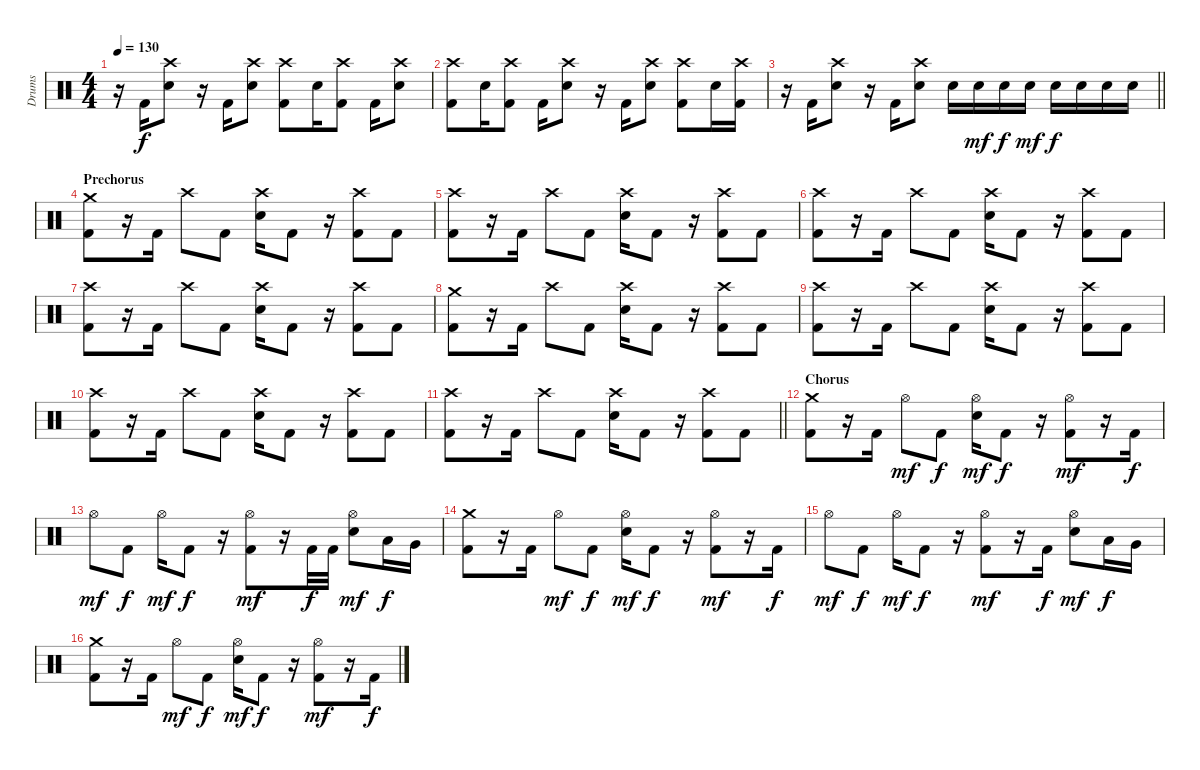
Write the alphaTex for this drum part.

\track ("Drums" "Drums") {instrument percussion}
\staff {score}
\articulation defaults
\ts (4 4)
\tempo 130
\clef neutral
\ks c
r.16{dy f} "Kick (hit) 2".16 ("Crash high (hit)" "Electric Snare (hit)").8 r.16 "Kick (hit) 2".16 ("Crash high (hit)" "Electric Snare (hit)").8 ("Kick (hit) 2" "Crash high (hit)").8 "Electric Snare (hit)".16 ("Kick (hit) 2" "Crash high (hit)").8 "Kick (hit) 2".16 ("Crash high (hit)" "Electric Snare (hit)").8 |
("Kick (hit) 2" "Crash high (hit)").8 "Electric Snare (hit)".16 ("Kick (hit) 2" "Crash high (hit)").8 "Kick (hit) 2".16 ("Crash high (hit)" "Electric Snare (hit)").8 r.16 "Kick (hit) 2".16 ("Crash high (hit)" "Electric Snare (hit)").8 ("Kick (hit) 2" "Crash high (hit)").8 "Electric Snare (hit)".16 ("Kick (hit) 2" "Crash high (hit)").16 |
\barLineRight lightlight
r.16 "Kick (hit) 2".16 ("Crash high (hit)" "Electric Snare (hit)").8 r.16 "Kick (hit) 2".16 ("Crash high (hit)" "Electric Snare (hit)").8 "Electric Snare (hit)".16 "Electric Snare (hit)".16{dy mf} "Electric Snare (hit)".16{dy f} "Electric Snare (hit)".16{dy mf} "Electric Snare (hit)".16{dy f} "Electric Snare (hit)".16 "Electric Snare (hit)".16 "Electric Snare (hit)".16 |
\section ("" "Prechorus")
("Kick (hit) 2" "Crash medium (hit)").8 r.16 "Kick (hit) 2".16 "Crash high (hit)".8 "Kick (hit) 2".8 ("Crash high (hit)" "Electric Snare (hit)").16 "Kick (hit) 2".8 r.16 ("Kick (hit) 2" "Crash high (hit)").8 "Kick (hit) 2".8 |
("Kick (hit) 2" "Crash high (hit)").8 r.16 "Kick (hit) 2".16 "Crash high (hit)".8 "Kick (hit) 2".8 ("Crash high (hit)" "Electric Snare (hit)").16 "Kick (hit) 2".8 r.16 ("Kick (hit) 2" "Crash high (hit)").8 "Kick (hit) 2".8 |
("Kick (hit) 2" "Crash high (hit)").8 r.16 "Kick (hit) 2".16 "Crash high (hit)".8 "Kick (hit) 2".8 ("Crash high (hit)" "Electric Snare (hit)").16 "Kick (hit) 2".8 r.16 ("Kick (hit) 2" "Crash high (hit)").8 "Kick (hit) 2".8 |
("Kick (hit) 2" "Crash high (hit)").8 r.16 "Kick (hit) 2".16 "Crash high (hit)".8 "Kick (hit) 2".8 ("Crash high (hit)" "Electric Snare (hit)").16 "Kick (hit) 2".8 r.16 ("Kick (hit) 2" "Crash high (hit)").8 "Kick (hit) 2".8 |
("Kick (hit) 2" "Crash medium (hit)").8 r.16 "Kick (hit) 2".16 "Crash high (hit)".8 "Kick (hit) 2".8 ("Crash high (hit)" "Electric Snare (hit)").16 "Kick (hit) 2".8 r.16 ("Kick (hit) 2" "Crash high (hit)").8 "Kick (hit) 2".8 |
("Kick (hit) 2" "Crash high (hit)").8 r.16 "Kick (hit) 2".16 "Crash high (hit)".8 "Kick (hit) 2".8 ("Crash high (hit)" "Electric Snare (hit)").16 "Kick (hit) 2".8 r.16 ("Kick (hit) 2" "Crash high (hit)").8 "Kick (hit) 2".8 |
("Kick (hit) 2" "Crash high (hit)").8 r.16 "Kick (hit) 2".16 "Crash high (hit)".8 "Kick (hit) 2".8 ("Crash high (hit)" "Electric Snare (hit)").16 "Kick (hit) 2".8 r.16 ("Kick (hit) 2" "Crash high (hit)").8 "Kick (hit) 2".8 |
\barLineRight lightlight
("Kick (hit) 2" "Crash high (hit)").8 r.16 "Kick (hit) 2".16 "Crash high (hit)".8 "Kick (hit) 2".8 ("Crash high (hit)" "Electric Snare (hit)").16 "Kick (hit) 2".8 r.16 ("Kick (hit) 2" "Crash high (hit)").8 "Kick (hit) 2".8 |
\section ("" "Chorus")
("Kick (hit) 2" "Crash medium (hit)").8 r.16 "Kick (hit) 2".16 "Hi-Hat (open)".8{dy mf} "Kick (hit) 2".8{dy f} ("Hi-Hat (open)" "Electric Snare (hit)").16{dy mf} "Kick (hit) 2".8{dy f} r.16 ("Kick (hit) 2" "Hi-Hat (open)").8{dy mf} r.16 "Kick (hit) 2".16{dy f} |
"Hi-Hat (open)".8{dy mf} "Kick (hit) 2".8{dy f} "Hi-Hat (open)".16{dy mf} "Kick (hit) 2".8{dy f} r.16 ("Kick (hit) 2" "Hi-Hat (open)").8{dy mf} r.16 "Kick (hit) 2".32{dy f} "Kick (hit) 2".32 ("Hi-Hat (open)" "Electric Snare (hit)").8{dy mf} "Low Tom (hit)".16{dy f} "Very Low Tom (hit)".16 |
("Kick (hit) 2" "Crash medium (hit)").8 r.16 "Kick (hit) 2".16 "Hi-Hat (open)".8{dy mf} "Kick (hit) 2".8{dy f} ("Hi-Hat (open)" "Electric Snare (hit)").16{dy mf} "Kick (hit) 2".8{dy f} r.16 ("Kick (hit) 2" "Hi-Hat (open)").8{dy mf} r.16 "Kick (hit) 2".16{dy f} |
"Hi-Hat (open)".8{dy mf} "Kick (hit) 2".8{dy f} "Hi-Hat (open)".16{dy mf} "Kick (hit) 2".8{dy f} r.16 ("Kick (hit) 2" "Hi-Hat (open)").8{dy mf} r.16 "Kick (hit) 2".16{dy f} ("Hi-Hat (open)" "Electric Snare (hit)").8{dy mf} "Low Tom (hit)".16{dy f} "Very Low Tom (hit)".16 |
("Kick (hit) 2" "Crash medium (hit)").8 r.16 "Kick (hit) 2".16 "Hi-Hat (open)".8{dy mf} "Kick (hit) 2".8{dy f} ("Hi-Hat (open)" "Electric Snare (hit)").16{dy mf} "Kick (hit) 2".8{dy f} r.16 ("Kick (hit) 2" "Hi-Hat (open)").8{dy mf} r.16 "Kick (hit) 2".16{dy f}
